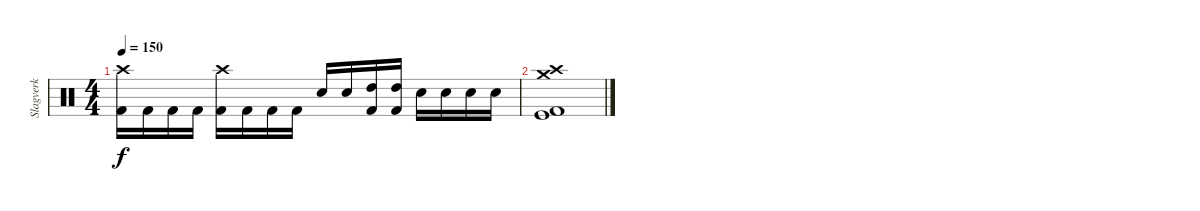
\track ("Slagverk" "Slagverk") {instrument percussion}
\staff {score}
\articulation defaults
\ts (4 4)
\tempo 150
\clef neutral
\ks c
("Crash high (hit)" "Kick (hit) 2").16{dy f} "Kick (hit) 2".16 "Kick (hit) 2".16 "Kick (hit) 2".16 ("Crash high (hit)" "Kick (hit) 2").16 "Kick (hit) 2".16 "Kick (hit) 2".16 "Kick (hit) 2".16 "Snare (hit) 2".16 "Snare (hit) 2".16 ("High Tom (hit)" "Kick (hit) 2").16 ("High Tom (hit)" "Kick (hit) 2").16 "Snare (hit) 2".16 "Snare (hit) 2".16 "Snare (hit) 2".16 "Snare (hit) 2".16 |
("Kick (hit)" "Crash high (hit)" "Crash medium (hit)" "Kick (hit) 2").1
